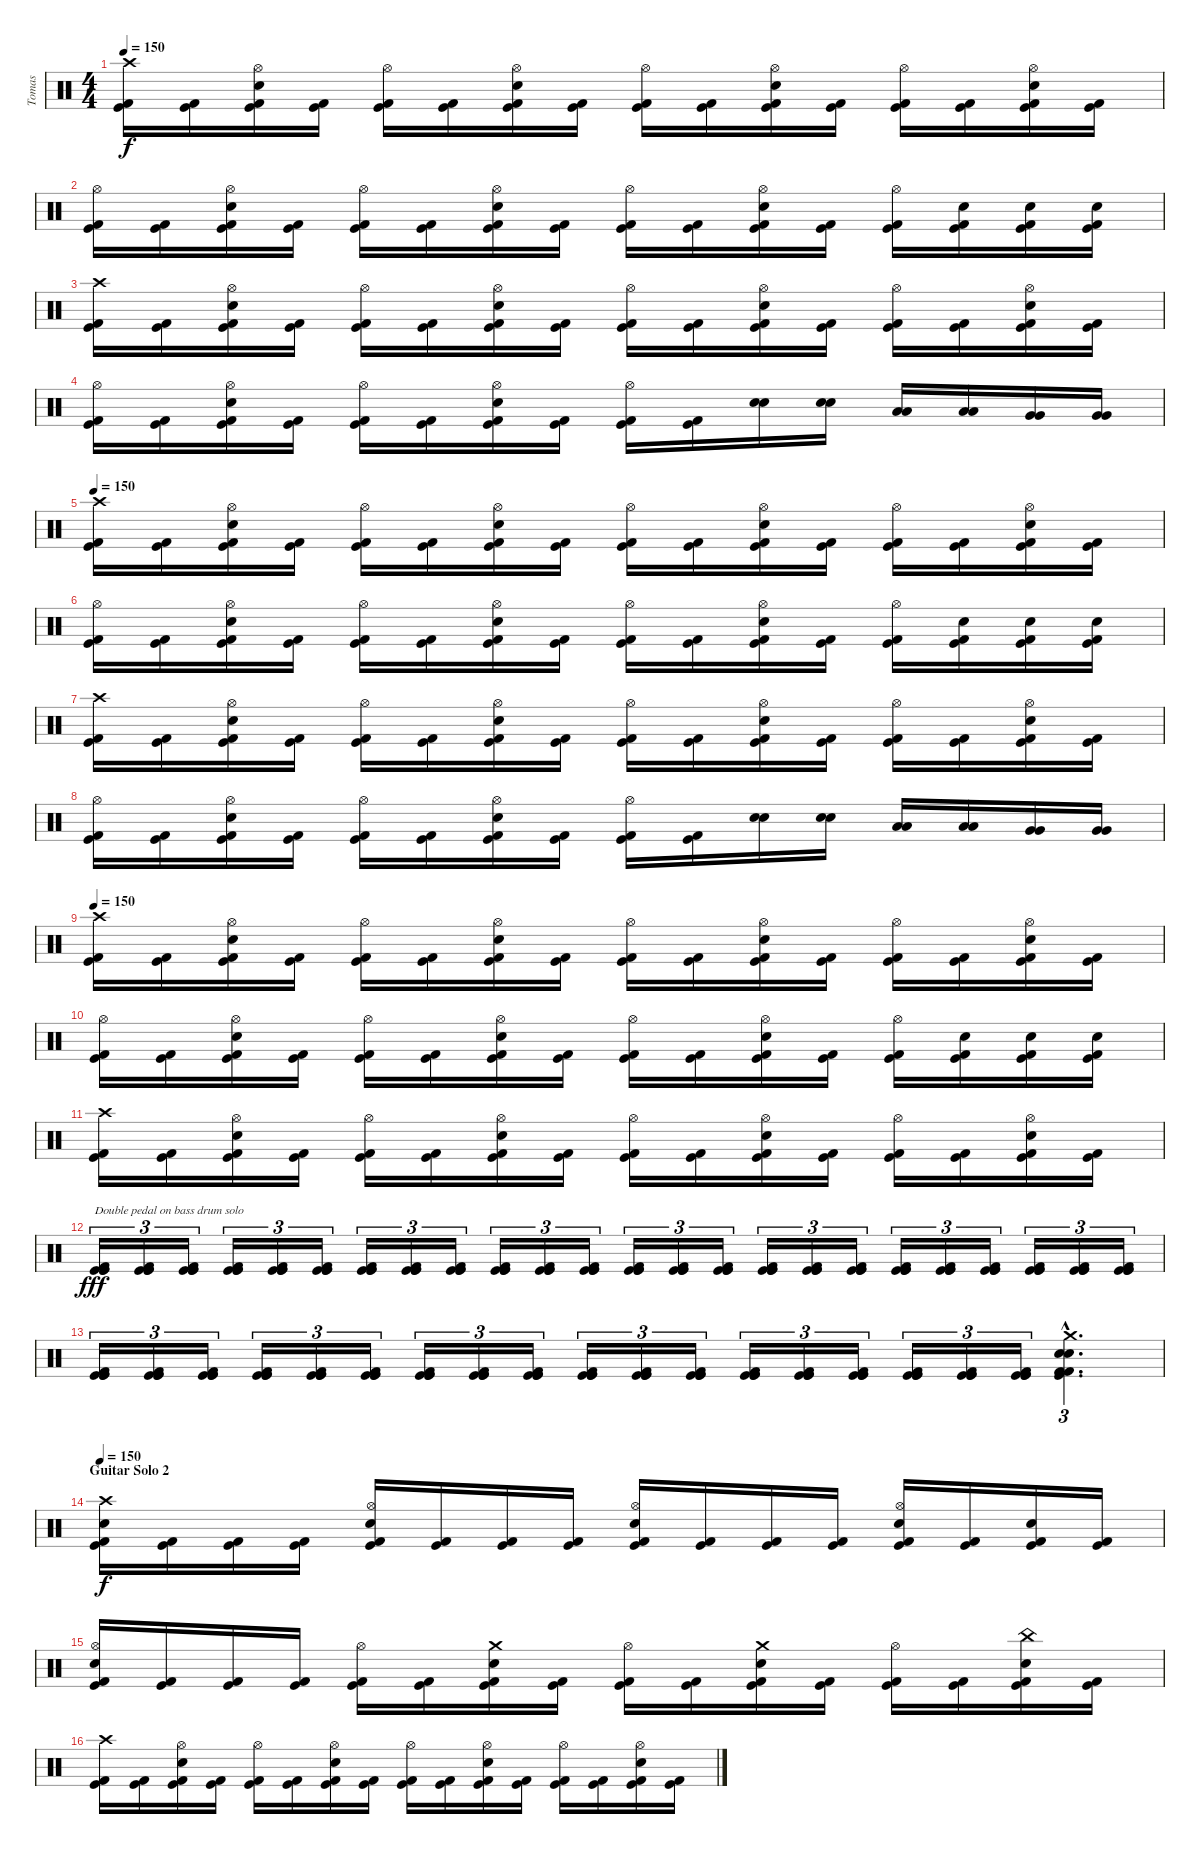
\track ("Tomas" "Tomas") {instrument percussion}
\staff {score}
\articulation defaults
\ts (4 4)
\tempo 150
\clef neutral
\ks c
("Crash high (hit)" "Kick (hit)" "Kick (hit) 2").16{dy f} ("Kick (hit)" "Kick (hit) 2").16 ("Hi-Hat (open)" "Electric Snare (hit)" "Kick (hit)" "Kick (hit) 2").16 ("Kick (hit)" "Kick (hit) 2").16 ("Hi-Hat (open)" "Kick (hit)" "Kick (hit) 2").16 ("Kick (hit)" "Kick (hit) 2").16 ("Hi-Hat (open)" "Electric Snare (hit)" "Kick (hit)" "Kick (hit) 2").16 ("Kick (hit)" "Kick (hit) 2").16 ("Hi-Hat (open)" "Kick (hit)" "Kick (hit) 2").16 ("Kick (hit)" "Kick (hit) 2").16 ("Hi-Hat (open)" "Electric Snare (hit)" "Kick (hit)" "Kick (hit) 2").16 ("Kick (hit)" "Kick (hit) 2").16 ("Hi-Hat (open)" "Kick (hit)" "Kick (hit) 2").16 ("Kick (hit)" "Kick (hit) 2").16 ("Hi-Hat (open)" "Electric Snare (hit)" "Kick (hit)" "Kick (hit) 2").16 ("Kick (hit)" "Kick (hit) 2").16 |
("Hi-Hat (open)" "Kick (hit)" "Kick (hit) 2").16 ("Kick (hit)" "Kick (hit) 2").16 ("Hi-Hat (open)" "Electric Snare (hit)" "Kick (hit)" "Kick (hit) 2").16 ("Kick (hit)" "Kick (hit) 2").16 ("Hi-Hat (open)" "Kick (hit)" "Kick (hit) 2").16 ("Kick (hit)" "Kick (hit) 2").16 ("Hi-Hat (open)" "Electric Snare (hit)" "Kick (hit)" "Kick (hit) 2").16 ("Kick (hit)" "Kick (hit) 2").16 ("Hi-Hat (open)" "Kick (hit)" "Kick (hit) 2").16 ("Kick (hit)" "Kick (hit) 2").16 ("Hi-Hat (open)" "Electric Snare (hit)" "Kick (hit)" "Kick (hit) 2").16 ("Kick (hit)" "Kick (hit) 2").16 ("Hi-Hat (open)" "Kick (hit)" "Kick (hit) 2").16 ("Electric Snare (hit)" "Kick (hit)" "Kick (hit) 2").16 ("Electric Snare (hit)" "Kick (hit)" "Kick (hit) 2").16 ("Electric Snare (hit)" "Kick (hit)" "Kick (hit) 2").16 |
("Crash high (hit)" "Kick (hit)" "Kick (hit) 2").16 ("Kick (hit)" "Kick (hit) 2").16 ("Hi-Hat (open)" "Electric Snare (hit)" "Kick (hit)" "Kick (hit) 2").16 ("Kick (hit)" "Kick (hit) 2").16 ("Hi-Hat (open)" "Kick (hit)" "Kick (hit) 2").16 ("Kick (hit)" "Kick (hit) 2").16 ("Hi-Hat (open)" "Electric Snare (hit)" "Kick (hit)" "Kick (hit) 2").16 ("Kick (hit)" "Kick (hit) 2").16 ("Hi-Hat (open)" "Kick (hit)" "Kick (hit) 2").16 ("Kick (hit)" "Kick (hit) 2").16 ("Hi-Hat (open)" "Electric Snare (hit)" "Kick (hit)" "Kick (hit) 2").16 ("Kick (hit)" "Kick (hit) 2").16 ("Hi-Hat (open)" "Kick (hit)" "Kick (hit) 2").16 ("Kick (hit)" "Kick (hit) 2").16 ("Hi-Hat (open)" "Electric Snare (hit)" "Kick (hit)" "Kick (hit) 2").16 ("Kick (hit)" "Kick (hit) 2").16 |
("Hi-Hat (open)" "Kick (hit)" "Kick (hit) 2").16 ("Kick (hit)" "Kick (hit) 2").16 ("Hi-Hat (open)" "Electric Snare (hit)" "Kick (hit)" "Kick (hit) 2").16 ("Kick (hit)" "Kick (hit) 2").16 ("Hi-Hat (open)" "Kick (hit)" "Kick (hit) 2").16 ("Kick (hit)" "Kick (hit) 2").16 ("Hi-Hat (open)" "Electric Snare (hit)" "Kick (hit)" "Kick (hit) 2").16 ("Kick (hit)" "Kick (hit) 2").16 ("Hi-Hat (open)" "Kick (hit)" "Kick (hit) 2").16 ("Kick (hit)" "Kick (hit) 2").16 ("Electric Snare (hit)" "Electric Snare (hit)").16 ("Electric Snare (hit)" "Electric Snare (hit)").16 ("Low Tom (hit)" "Low Tom (hit)").16 ("Low Tom (hit)" "Low Tom (hit)").16 ("Very Low Tom (hit)" "Very Low Tom (hit)").16 ("Very Low Tom (hit)" "Very Low Tom (hit)").16 |
\tempo 150
("Crash high (hit)" "Kick (hit)" "Kick (hit) 2").16 ("Kick (hit)" "Kick (hit) 2").16 ("Hi-Hat (open)" "Electric Snare (hit)" "Kick (hit)" "Kick (hit) 2").16 ("Kick (hit)" "Kick (hit) 2").16 ("Hi-Hat (open)" "Kick (hit)" "Kick (hit) 2").16 ("Kick (hit)" "Kick (hit) 2").16 ("Hi-Hat (open)" "Electric Snare (hit)" "Kick (hit)" "Kick (hit) 2").16 ("Kick (hit)" "Kick (hit) 2").16 ("Hi-Hat (open)" "Kick (hit)" "Kick (hit) 2").16 ("Kick (hit)" "Kick (hit) 2").16 ("Hi-Hat (open)" "Electric Snare (hit)" "Kick (hit)" "Kick (hit) 2").16 ("Kick (hit)" "Kick (hit) 2").16 ("Hi-Hat (open)" "Kick (hit)" "Kick (hit) 2").16 ("Kick (hit)" "Kick (hit) 2").16 ("Hi-Hat (open)" "Electric Snare (hit)" "Kick (hit)" "Kick (hit) 2").16 ("Kick (hit)" "Kick (hit) 2").16 |
("Hi-Hat (open)" "Kick (hit)" "Kick (hit) 2").16 ("Kick (hit)" "Kick (hit) 2").16 ("Hi-Hat (open)" "Electric Snare (hit)" "Kick (hit)" "Kick (hit) 2").16 ("Kick (hit)" "Kick (hit) 2").16 ("Hi-Hat (open)" "Kick (hit)" "Kick (hit) 2").16 ("Kick (hit)" "Kick (hit) 2").16 ("Hi-Hat (open)" "Electric Snare (hit)" "Kick (hit)" "Kick (hit) 2").16 ("Kick (hit)" "Kick (hit) 2").16 ("Hi-Hat (open)" "Kick (hit)" "Kick (hit) 2").16 ("Kick (hit)" "Kick (hit) 2").16 ("Hi-Hat (open)" "Electric Snare (hit)" "Kick (hit)" "Kick (hit) 2").16 ("Kick (hit)" "Kick (hit) 2").16 ("Hi-Hat (open)" "Kick (hit)" "Kick (hit) 2").16 ("Electric Snare (hit)" "Kick (hit)" "Kick (hit) 2").16 ("Electric Snare (hit)" "Kick (hit)" "Kick (hit) 2").16 ("Electric Snare (hit)" "Kick (hit)" "Kick (hit) 2").16 |
("Crash high (hit)" "Kick (hit)" "Kick (hit) 2").16 ("Kick (hit)" "Kick (hit) 2").16 ("Hi-Hat (open)" "Electric Snare (hit)" "Kick (hit)" "Kick (hit) 2").16 ("Kick (hit)" "Kick (hit) 2").16 ("Hi-Hat (open)" "Kick (hit)" "Kick (hit) 2").16 ("Kick (hit)" "Kick (hit) 2").16 ("Hi-Hat (open)" "Electric Snare (hit)" "Kick (hit)" "Kick (hit) 2").16 ("Kick (hit)" "Kick (hit) 2").16 ("Hi-Hat (open)" "Kick (hit)" "Kick (hit) 2").16 ("Kick (hit)" "Kick (hit) 2").16 ("Hi-Hat (open)" "Electric Snare (hit)" "Kick (hit)" "Kick (hit) 2").16 ("Kick (hit)" "Kick (hit) 2").16 ("Hi-Hat (open)" "Kick (hit)" "Kick (hit) 2").16 ("Kick (hit)" "Kick (hit) 2").16 ("Hi-Hat (open)" "Electric Snare (hit)" "Kick (hit)" "Kick (hit) 2").16 ("Kick (hit)" "Kick (hit) 2").16 |
("Hi-Hat (open)" "Kick (hit)" "Kick (hit) 2").16 ("Kick (hit)" "Kick (hit) 2").16 ("Hi-Hat (open)" "Electric Snare (hit)" "Kick (hit)" "Kick (hit) 2").16 ("Kick (hit)" "Kick (hit) 2").16 ("Hi-Hat (open)" "Kick (hit)" "Kick (hit) 2").16 ("Kick (hit)" "Kick (hit) 2").16 ("Hi-Hat (open)" "Electric Snare (hit)" "Kick (hit)" "Kick (hit) 2").16 ("Kick (hit)" "Kick (hit) 2").16 ("Hi-Hat (open)" "Kick (hit)" "Kick (hit) 2").16 ("Kick (hit)" "Kick (hit) 2").16 ("Electric Snare (hit)" "Electric Snare (hit)").16 ("Electric Snare (hit)" "Electric Snare (hit)").16 ("Low Tom (hit)" "Low Tom (hit)").16 ("Low Tom (hit)" "Low Tom (hit)").16 ("Very Low Tom (hit)" "Very Low Tom (hit)").16 ("Very Low Tom (hit)" "Very Low Tom (hit)").16 |
\tempo 150
("Crash high (hit)" "Kick (hit)" "Kick (hit) 2").16 ("Kick (hit)" "Kick (hit) 2").16 ("Hi-Hat (open)" "Electric Snare (hit)" "Kick (hit)" "Kick (hit) 2").16 ("Kick (hit)" "Kick (hit) 2").16 ("Hi-Hat (open)" "Kick (hit)" "Kick (hit) 2").16 ("Kick (hit)" "Kick (hit) 2").16 ("Hi-Hat (open)" "Electric Snare (hit)" "Kick (hit)" "Kick (hit) 2").16 ("Kick (hit)" "Kick (hit) 2").16 ("Hi-Hat (open)" "Kick (hit)" "Kick (hit) 2").16 ("Kick (hit)" "Kick (hit) 2").16 ("Hi-Hat (open)" "Electric Snare (hit)" "Kick (hit)" "Kick (hit) 2").16 ("Kick (hit)" "Kick (hit) 2").16 ("Hi-Hat (open)" "Kick (hit)" "Kick (hit) 2").16 ("Kick (hit)" "Kick (hit) 2").16 ("Hi-Hat (open)" "Electric Snare (hit)" "Kick (hit)" "Kick (hit) 2").16 ("Kick (hit)" "Kick (hit) 2").16 |
("Hi-Hat (open)" "Kick (hit)" "Kick (hit) 2").16 ("Kick (hit)" "Kick (hit) 2").16 ("Hi-Hat (open)" "Electric Snare (hit)" "Kick (hit)" "Kick (hit) 2").16 ("Kick (hit)" "Kick (hit) 2").16 ("Hi-Hat (open)" "Kick (hit)" "Kick (hit) 2").16 ("Kick (hit)" "Kick (hit) 2").16 ("Hi-Hat (open)" "Electric Snare (hit)" "Kick (hit)" "Kick (hit) 2").16 ("Kick (hit)" "Kick (hit) 2").16 ("Hi-Hat (open)" "Kick (hit)" "Kick (hit) 2").16 ("Kick (hit)" "Kick (hit) 2").16 ("Hi-Hat (open)" "Electric Snare (hit)" "Kick (hit)" "Kick (hit) 2").16 ("Kick (hit)" "Kick (hit) 2").16 ("Hi-Hat (open)" "Kick (hit)" "Kick (hit) 2").16 ("Electric Snare (hit)" "Kick (hit)" "Kick (hit) 2").16 ("Electric Snare (hit)" "Kick (hit)" "Kick (hit) 2").16 ("Electric Snare (hit)" "Kick (hit)" "Kick (hit) 2").16 |
("Crash high (hit)" "Kick (hit)" "Kick (hit) 2").16 ("Kick (hit)" "Kick (hit) 2").16 ("Hi-Hat (open)" "Electric Snare (hit)" "Kick (hit)" "Kick (hit) 2").16 ("Kick (hit)" "Kick (hit) 2").16 ("Hi-Hat (open)" "Kick (hit)" "Kick (hit) 2").16 ("Kick (hit)" "Kick (hit) 2").16 ("Hi-Hat (open)" "Electric Snare (hit)" "Kick (hit)" "Kick (hit) 2").16 ("Kick (hit)" "Kick (hit) 2").16 ("Hi-Hat (open)" "Kick (hit)" "Kick (hit) 2").16 ("Kick (hit)" "Kick (hit) 2").16 ("Hi-Hat (open)" "Electric Snare (hit)" "Kick (hit)" "Kick (hit) 2").16 ("Kick (hit)" "Kick (hit) 2").16 ("Hi-Hat (open)" "Kick (hit)" "Kick (hit) 2").16 ("Kick (hit)" "Kick (hit) 2").16 ("Hi-Hat (open)" "Electric Snare (hit)" "Kick (hit)" "Kick (hit) 2").16 ("Kick (hit)" "Kick (hit) 2").16 |
("Kick (hit)" "Kick (hit)" "Kick (hit)" "Kick (hit) 2").16{tu (3 2) txt "Double pedal on bass drum solo" dy fff} ("Kick (hit)" "Kick (hit)" "Kick (hit)" "Kick (hit) 2").16{tu (3 2)} ("Kick (hit)" "Kick (hit)" "Kick (hit)" "Kick (hit) 2").16{tu (3 2)} ("Kick (hit)" "Kick (hit)" "Kick (hit)" "Kick (hit) 2").16{tu (3 2)} ("Kick (hit)" "Kick (hit)" "Kick (hit)" "Kick (hit) 2").16{tu (3 2)} ("Kick (hit)" "Kick (hit)" "Kick (hit)" "Kick (hit) 2").16{tu (3 2)} ("Kick (hit)" "Kick (hit)" "Kick (hit)" "Kick (hit) 2").16{tu (3 2)} ("Kick (hit)" "Kick (hit)" "Kick (hit)" "Kick (hit) 2").16{tu (3 2)} ("Kick (hit)" "Kick (hit)" "Kick (hit)" "Kick (hit) 2").16{tu (3 2)} ("Kick (hit)" "Kick (hit)" "Kick (hit)" "Kick (hit) 2").16{tu (3 2)} ("Kick (hit)" "Kick (hit)" "Kick (hit)" "Kick (hit) 2").16{tu (3 2)} ("Kick (hit)" "Kick (hit)" "Kick (hit)" "Kick (hit) 2").16{tu (3 2)} ("Kick (hit)" "Kick (hit)" "Kick (hit)" "Kick (hit) 2").16{tu (3 2)} ("Kick (hit)" "Kick (hit)" "Kick (hit)" "Kick (hit) 2").16{tu (3 2)} ("Kick (hit)" "Kick (hit)" "Kick (hit)" "Kick (hit) 2").16{tu (3 2)} ("Kick (hit)" "Kick (hit)" "Kick (hit)" "Kick (hit) 2").16{tu (3 2)} ("Kick (hit)" "Kick (hit)" "Kick (hit)" "Kick (hit) 2").16{tu (3 2)} ("Kick (hit)" "Kick (hit)" "Kick (hit)" "Kick (hit) 2").16{tu (3 2)} ("Kick (hit)" "Kick (hit)" "Kick (hit)" "Kick (hit) 2").16{tu (3 2)} ("Kick (hit)" "Kick (hit)" "Kick (hit)" "Kick (hit) 2").16{tu (3 2)} ("Kick (hit)" "Kick (hit)" "Kick (hit)" "Kick (hit) 2").16{tu (3 2)} ("Kick (hit)" "Kick (hit)" "Kick (hit)" "Kick (hit) 2").16{tu (3 2)} ("Kick (hit)" "Kick (hit)" "Kick (hit)" "Kick (hit) 2").16{tu (3 2)} ("Kick (hit)" "Kick (hit)" "Kick (hit)" "Kick (hit) 2").16{tu (3 2)} |
("Kick (hit)" "Kick (hit)" "Kick (hit)" "Kick (hit) 2").16{tu (3 2)} ("Kick (hit)" "Kick (hit)" "Kick (hit)" "Kick (hit) 2").16{tu (3 2)} ("Kick (hit)" "Kick (hit)" "Kick (hit)" "Kick (hit) 2").16{tu (3 2)} ("Kick (hit)" "Kick (hit)" "Kick (hit)" "Kick (hit) 2").16{tu (3 2)} ("Kick (hit)" "Kick (hit)" "Kick (hit)" "Kick (hit) 2").16{tu (3 2)} ("Kick (hit)" "Kick (hit)" "Kick (hit)" "Kick (hit) 2").16{tu (3 2)} ("Kick (hit)" "Kick (hit)" "Kick (hit)" "Kick (hit) 2").16{tu (3 2)} ("Kick (hit)" "Kick (hit)" "Kick (hit)" "Kick (hit) 2").16{tu (3 2)} ("Kick (hit)" "Kick (hit)" "Kick (hit)" "Kick (hit) 2").16{tu (3 2)} ("Kick (hit)" "Kick (hit)" "Kick (hit)" "Kick (hit) 2").16{tu (3 2)} ("Kick (hit)" "Kick (hit)" "Kick (hit)" "Kick (hit) 2").16{tu (3 2)} ("Kick (hit)" "Kick (hit)" "Kick (hit)" "Kick (hit) 2").16{tu (3 2)} ("Kick (hit)" "Kick (hit)" "Kick (hit)" "Kick (hit) 2").16{tu (3 2)} ("Kick (hit)" "Kick (hit)" "Kick (hit)" "Kick (hit) 2").16{tu (3 2)} ("Kick (hit)" "Kick (hit)" "Kick (hit)" "Kick (hit) 2").16{tu (3 2)} ("Kick (hit)" "Kick (hit)" "Kick (hit)" "Kick (hit) 2").16{tu (3 2)} ("Kick (hit)" "Kick (hit)" "Kick (hit)" "Kick (hit) 2").16{tu (3 2)} ("Kick (hit)" "Kick (hit)" "Kick (hit)" "Kick (hit) 2").16{tu (3 2)} ("Kick (hit) 2"{hac} "Crash medium (hit)"{hac} "Kick (hit)"{hac} "Kick (hit) 2"{hac} "Electric Snare (hit)"{hac} "Electric Snare (hit)"{hac}).4{d tu (3 2)} |
\section ("" "Guitar Solo 2")
\tempo 150
("Crash high (hit)" "Electric Snare (hit)" "Kick (hit)" "Kick (hit) 2").16{dy f} ("Kick (hit)" "Kick (hit) 2").16 ("Kick (hit)" "Kick (hit) 2").16 ("Kick (hit)" "Kick (hit) 2").16 ("Hi-Hat (open)" "Electric Snare (hit)" "Kick (hit)" "Kick (hit) 2").16 ("Kick (hit)" "Kick (hit) 2").16 ("Kick (hit)" "Kick (hit) 2").16 ("Kick (hit)" "Kick (hit) 2").16 ("Hi-Hat (open)" "Electric Snare (hit)" "Kick (hit)" "Kick (hit) 2").16 ("Kick (hit)" "Kick (hit) 2").16 ("Kick (hit)" "Kick (hit) 2").16 ("Kick (hit)" "Kick (hit) 2").16 ("Hi-Hat (open)" "Electric Snare (hit)" "Kick (hit)" "Kick (hit) 2").16 ("Kick (hit)" "Kick (hit) 2").16 ("Electric Snare (hit)" "Kick (hit)" "Kick (hit) 2").16 ("Kick (hit)" "Kick (hit) 2").16 |
("Hi-Hat (open)" "Electric Snare (hit)" "Kick (hit)" "Kick (hit) 2").16 ("Kick (hit)" "Kick (hit) 2").16 ("Kick (hit)" "Kick (hit) 2").16 ("Kick (hit)" "Kick (hit) 2").16 ("Hi-Hat (open)" "Kick (hit)" "Kick (hit) 2").16 ("Kick (hit)" "Kick (hit) 2").16 ("Crash medium (hit)" "Electric Snare (hit)" "Kick (hit)" "Kick (hit) 2").16 ("Kick (hit)" "Kick (hit) 2").16 ("Hi-Hat (open)" "Kick (hit)" "Kick (hit) 2").16 ("Kick (hit)" "Kick (hit) 2").16 ("Crash medium (hit)" "Electric Snare (hit)" "Kick (hit)" "Kick (hit) 2").16 ("Kick (hit)" "Kick (hit) 2").16 ("Hi-Hat (open)" "Kick (hit)" "Kick (hit) 2").16 ("Kick (hit)" "Kick (hit) 2").16 ("China (hit)" "Electric Snare (hit)" "Kick (hit)" "Kick (hit) 2").16 ("Kick (hit)" "Kick (hit) 2").16 |
("Crash high (hit)" "Kick (hit)" "Kick (hit) 2").16 ("Kick (hit)" "Kick (hit) 2").16 ("Hi-Hat (open)" "Electric Snare (hit)" "Kick (hit)" "Kick (hit) 2").16 ("Kick (hit)" "Kick (hit) 2").16 ("Hi-Hat (open)" "Kick (hit)" "Kick (hit) 2").16 ("Kick (hit)" "Kick (hit) 2").16 ("Hi-Hat (open)" "Electric Snare (hit)" "Kick (hit)" "Kick (hit) 2").16 ("Kick (hit)" "Kick (hit) 2").16 ("Hi-Hat (open)" "Kick (hit)" "Kick (hit) 2").16 ("Kick (hit)" "Kick (hit) 2").16 ("Hi-Hat (open)" "Electric Snare (hit)" "Kick (hit)" "Kick (hit) 2").16 ("Kick (hit)" "Kick (hit) 2").16 ("Hi-Hat (open)" "Kick (hit)" "Kick (hit) 2").16 ("Kick (hit)" "Kick (hit) 2").16 ("Hi-Hat (open)" "Electric Snare (hit)" "Kick (hit)" "Kick (hit) 2").16 ("Kick (hit)" "Kick (hit) 2").16
